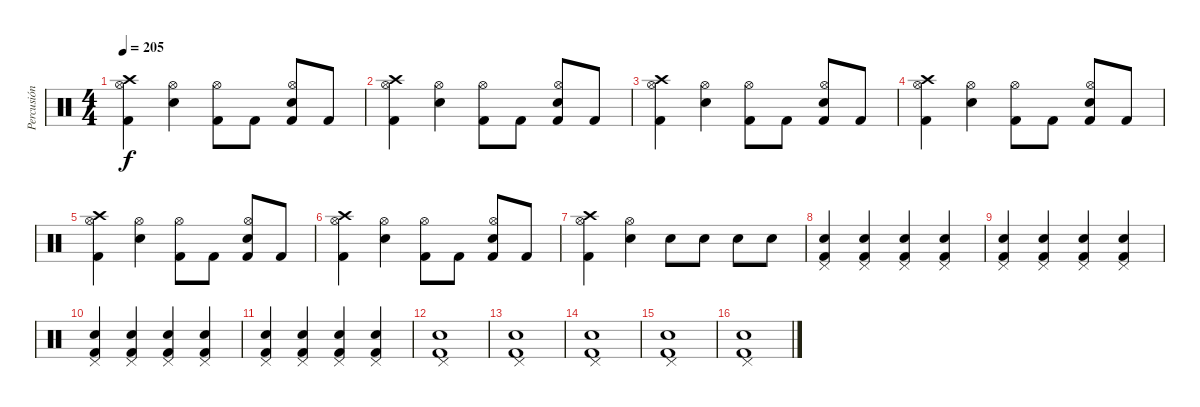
\track ("Percusión" "Percusión") {instrument percussion}
\staff {score}
\articulation defaults
\ts (4 4)
\tempo 205
\clef neutral
\ks c
("Crash high (hit)" "Kick (hit) 2" "Hi-Hat (open)").4{dy f} ("Snare (hit) 2" "Hi-Hat (open)").4 ("Kick (hit) 2" "Hi-Hat (open)").8 "Kick (hit) 2".8 ("Snare (hit) 2" "Kick (hit) 2" "Hi-Hat (open)").8 "Kick (hit) 2".8 |
("Crash high (hit)" "Kick (hit) 2" "Hi-Hat (open)").4 ("Snare (hit) 2" "Hi-Hat (open)").4 ("Kick (hit) 2" "Hi-Hat (open)").8 "Kick (hit) 2".8 ("Snare (hit) 2" "Kick (hit) 2" "Hi-Hat (open)").8 "Kick (hit) 2".8 |
("Crash high (hit)" "Kick (hit) 2" "Hi-Hat (open)").4 ("Snare (hit) 2" "Hi-Hat (open)").4 ("Kick (hit) 2" "Hi-Hat (open)").8 "Kick (hit) 2".8 ("Snare (hit) 2" "Kick (hit) 2" "Hi-Hat (open)").8 "Kick (hit) 2".8 |
("Crash high (hit)" "Kick (hit) 2" "Hi-Hat (open)").4 ("Snare (hit) 2" "Hi-Hat (open)").4 ("Kick (hit) 2" "Hi-Hat (open)").8 "Kick (hit) 2".8 ("Snare (hit) 2" "Kick (hit) 2" "Hi-Hat (open)").8 "Kick (hit) 2".8 |
("Crash high (hit)" "Kick (hit) 2" "Hi-Hat (open)").4 ("Snare (hit) 2" "Hi-Hat (open)").4 ("Kick (hit) 2" "Hi-Hat (open)").8 "Kick (hit) 2".8 ("Snare (hit) 2" "Kick (hit) 2" "Hi-Hat (open)").8 "Kick (hit) 2".8 |
("Crash high (hit)" "Kick (hit) 2" "Hi-Hat (open)").4 ("Snare (hit) 2" "Hi-Hat (open)").4 ("Kick (hit) 2" "Hi-Hat (open)").8 "Kick (hit) 2".8 ("Snare (hit) 2" "Kick (hit) 2" "Hi-Hat (open)").8 "Kick (hit) 2".8 |
("Crash high (hit)" "Kick (hit) 2" "Hi-Hat (open)").4 ("Snare (hit) 2" "Hi-Hat (open)").4 "Snare (hit) 2".8 "Snare (hit) 2".8 "Snare (hit) 2".8 "Snare (hit) 2".8 |
("Pedal Hi-Hat (hit)" "Snare (hit) 2" "Kick (hit) 2").4 ("Pedal Hi-Hat (hit)" "Snare (hit) 2" "Kick (hit) 2").4 ("Pedal Hi-Hat (hit)" "Snare (hit) 2" "Kick (hit) 2").4 ("Pedal Hi-Hat (hit)" "Snare (hit) 2" "Kick (hit) 2").4 |
("Pedal Hi-Hat (hit)" "Snare (hit) 2" "Kick (hit) 2").4 ("Pedal Hi-Hat (hit)" "Snare (hit) 2" "Kick (hit) 2").4 ("Pedal Hi-Hat (hit)" "Snare (hit) 2" "Kick (hit) 2").4 ("Pedal Hi-Hat (hit)" "Snare (hit) 2" "Kick (hit) 2").4 |
("Pedal Hi-Hat (hit)" "Snare (hit) 2" "Kick (hit) 2").4 ("Pedal Hi-Hat (hit)" "Snare (hit) 2" "Kick (hit) 2").4 ("Pedal Hi-Hat (hit)" "Snare (hit) 2" "Kick (hit) 2").4 ("Pedal Hi-Hat (hit)" "Snare (hit) 2" "Kick (hit) 2").4 |
("Pedal Hi-Hat (hit)" "Snare (hit) 2" "Kick (hit) 2").4 ("Pedal Hi-Hat (hit)" "Snare (hit) 2" "Kick (hit) 2").4 ("Pedal Hi-Hat (hit)" "Snare (hit) 2" "Kick (hit) 2").4 ("Pedal Hi-Hat (hit)" "Snare (hit) 2" "Kick (hit) 2").4 |
("Pedal Hi-Hat (hit)" "Snare (hit) 2" "Kick (hit) 2").1 |
("Pedal Hi-Hat (hit)" "Snare (hit) 2" "Kick (hit) 2").1 |
("Pedal Hi-Hat (hit)" "Snare (hit) 2" "Kick (hit) 2").1 |
("Pedal Hi-Hat (hit)" "Snare (hit) 2" "Kick (hit) 2").1 |
("Pedal Hi-Hat (hit)" "Snare (hit) 2" "Kick (hit) 2").1
